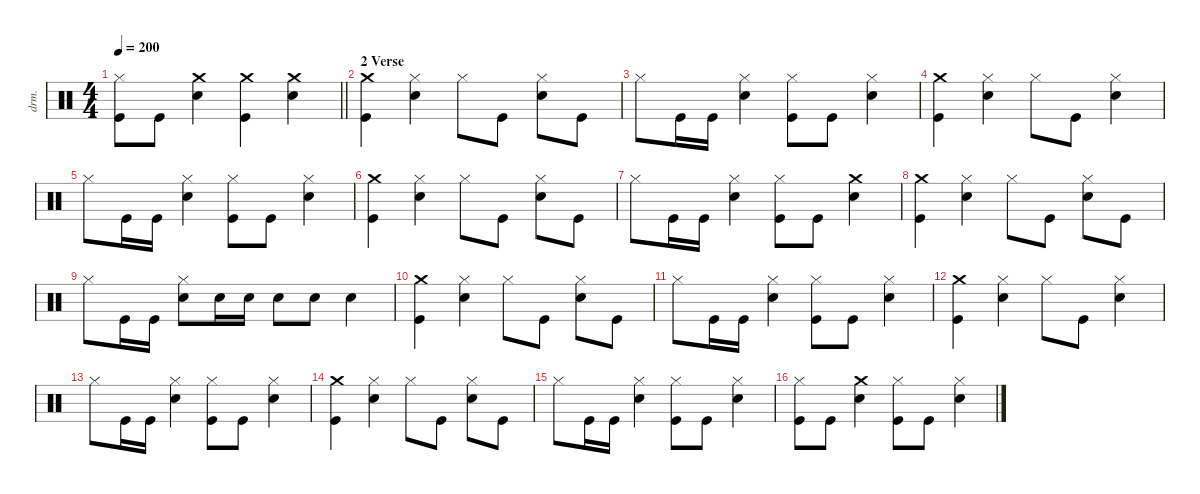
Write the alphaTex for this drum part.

\defaultSystemsLayout 4
\hideDynamics
\bracketExtendMode nobrackets
\otherSystemsTrackNameOrientation horizontal
\track ("Lars Ulrich (Drums)" "drm.") {instrument percussion}
\staff {score}
\articulation defaults
\ts (4 4)
\tempo 200
\clef neutral
\barLineRight lightlight
\ks c
("Kick (hit)" "Hi-Hat (closed)").8{dy f beam Down} "Kick (hit)".8{beam Down} ("Crash medium (hit)" "Snare (hit) 2").4{beam Down} ("Kick (hit)" "Crash medium (hit)").4{beam Down} ("Snare (hit) 2" "Crash medium (hit)").4{beam Down} |
\section ("" "2 Verse")
("Kick (hit)" "Crash medium (hit)").4{beam Down} ("Snare (hit) 2" "Hi-Hat (closed)").4{beam Down} "Hi-Hat (closed)".8{beam Down} "Kick (hit)".8{beam Down} ("Snare (hit) 2" "Hi-Hat (closed)").8{beam Down} "Kick (hit)".8{beam Down} |
"Hi-Hat (closed)".8{beam Down} "Kick (hit)".16{beam Down} "Kick (hit)".16{beam Down} ("Snare (hit) 2" "Hi-Hat (closed)").4{beam Down} ("Kick (hit)" "Hi-Hat (closed)").8{beam Down} "Kick (hit)".8{beam Down} ("Snare (hit) 2" "Hi-Hat (closed)").4{beam Down} |
("Kick (hit)" "Crash medium (hit)").4{beam Down} ("Hi-Hat (closed)" "Snare (hit) 2").4{beam Down} "Hi-Hat (closed)".8{beam Down} "Kick (hit)".8{beam Down} ("Snare (hit) 2" "Hi-Hat (closed)").4{beam Down} |
"Hi-Hat (closed)".8{beam Down} "Kick (hit)".16{beam Down} "Kick (hit)".16{beam Down} ("Snare (hit) 2" "Hi-Hat (closed)").4{beam Down} ("Kick (hit)" "Hi-Hat (closed)").8{beam Down} "Kick (hit)".8{beam Down} ("Hi-Hat (closed)" "Snare (hit) 2").4{beam Down} |
("Kick (hit)" "Crash medium (hit)").4{beam Down} ("Hi-Hat (closed)" "Snare (hit) 2").4{beam Down} "Hi-Hat (closed)".8{beam Down} "Kick (hit)".8{beam Down} ("Snare (hit) 2" "Hi-Hat (closed)").8{beam Down} "Kick (hit)".8{beam Down} |
"Hi-Hat (closed)".8{beam Down} "Kick (hit)".16{beam Down} "Kick (hit)".16{beam Down} ("Snare (hit) 2" "Hi-Hat (closed)").4{beam Down} ("Kick (hit)" "Hi-Hat (closed)").8{beam Down} "Kick (hit)".8{beam Down} ("Crash medium (hit)" "Snare (hit) 2").4{beam Down} |
("Kick (hit)" "Crash medium (hit)").4{beam Down} ("Hi-Hat (closed)" "Snare (hit) 2").4{beam Down} "Hi-Hat (closed)".8{beam Down} "Kick (hit)".8{beam Down} ("Snare (hit) 2" "Hi-Hat (closed)").8{beam Down} "Kick (hit)".8{beam Down} |
"Hi-Hat (closed)".8{beam Down} "Kick (hit)".16{beam Down} "Kick (hit)".16{beam Down} ("Snare (hit) 2" "Hi-Hat (closed)").8{beam Down} "Snare (hit) 2".16{beam Down} "Snare (hit) 2".16{beam Down} "Snare (hit) 2".8{beam Down} "Snare (hit) 2".8{beam Down} "Snare (hit) 2".4{beam Down} |
("Kick (hit)" "Crash medium (hit)").4{beam Down} ("Hi-Hat (closed)" "Snare (hit) 2").4{beam Down} "Hi-Hat (closed)".8{beam Down} "Kick (hit)".8{beam Down} ("Snare (hit) 2" "Hi-Hat (closed)").8{beam Down} "Kick (hit)".8{beam Down} |
"Hi-Hat (closed)".8{beam Down} "Kick (hit)".16{beam Down} "Kick (hit)".16{beam Down} ("Snare (hit) 2" "Hi-Hat (closed)").4{beam Down} ("Kick (hit)" "Hi-Hat (closed)").8{beam Down} "Kick (hit)".8{beam Down} ("Snare (hit) 2" "Hi-Hat (closed)").4{beam Down} |
("Kick (hit)" "Crash medium (hit)").4{beam Down} ("Hi-Hat (closed)" "Snare (hit) 2").4{beam Down} "Hi-Hat (closed)".8{beam Down} "Kick (hit)".8{beam Down} ("Snare (hit) 2" "Hi-Hat (closed)").4{beam Down} |
"Hi-Hat (closed)".8{beam Down} "Kick (hit)".16{beam Down} "Kick (hit)".16{beam Down} ("Snare (hit) 2" "Hi-Hat (closed)").4{beam Down} ("Kick (hit)" "Hi-Hat (closed)").8{beam Down} "Kick (hit)".8{beam Down} ("Hi-Hat (closed)" "Snare (hit) 2").4{beam Down} |
("Kick (hit)" "Crash medium (hit)").4{beam Down} ("Hi-Hat (closed)" "Snare (hit) 2").4{beam Down} "Hi-Hat (closed)".8{beam Down} "Kick (hit)".8{beam Down} ("Snare (hit) 2" "Hi-Hat (closed)").8{beam Down} "Kick (hit)".8{beam Down} |
"Hi-Hat (closed)".8{beam Down} "Kick (hit)".16{beam Down} "Kick (hit)".16{beam Down} ("Snare (hit) 2" "Hi-Hat (closed)").4{beam Down} ("Kick (hit)" "Hi-Hat (closed)").8{beam Down} "Kick (hit)".8{beam Down} ("Snare (hit) 2" "Hi-Hat (closed)").4{beam Down} |
("Kick (hit)" "Hi-Hat (closed)").8{beam Down} "Kick (hit)".8{beam Down} ("Snare (hit) 2" "Crash medium (hit)").4{beam Down} ("Kick (hit)" "Hi-Hat (closed)").8{beam Down} "Kick (hit)".8{beam Down} ("Snare (hit) 2" "Hi-Hat (closed)").4{beam Down}
